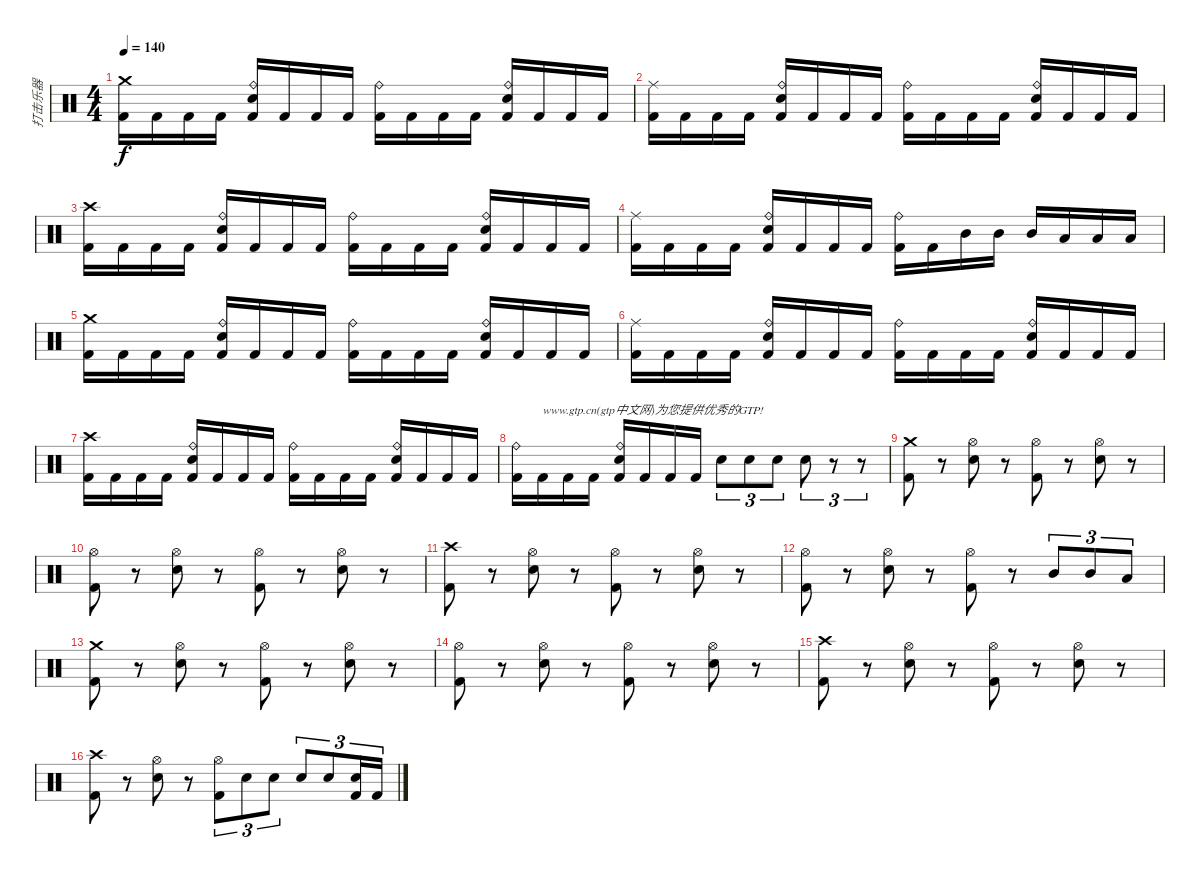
\track ("打击乐器" "打击乐器") {instrument percussion}
\staff {score}
\articulation defaults
\ts (4 4)
\tempo 140
\clef neutral
\ks c
("Crash medium (hit)" "Kick (hit) 2").16{dy f} "Kick (hit) 2".16 "Kick (hit) 2".16 "Kick (hit) 2".16 ("Ride (bell)" "Snare (hit) 2" "Kick (hit) 2").16 "Kick (hit) 2".16 "Kick (hit) 2".16 "Kick (hit) 2".16 ("Ride (bell)" "Kick (hit) 2").16 "Kick (hit) 2".16 "Kick (hit) 2".16 "Kick (hit) 2".16 ("Ride (bell)" "Snare (hit) 2" "Kick (hit) 2").16 "Kick (hit) 2".16 "Kick (hit) 2".16 "Kick (hit) 2".16 |
("Ride (middle)" "Kick (hit) 2").16 "Kick (hit) 2".16 "Kick (hit) 2".16 "Kick (hit) 2".16 ("Ride (bell)" "Snare (hit) 2" "Kick (hit) 2").16 "Kick (hit) 2".16 "Kick (hit) 2".16 "Kick (hit) 2".16 ("Ride (bell)" "Kick (hit) 2").16 "Kick (hit) 2".16 "Kick (hit) 2".16 "Kick (hit) 2".16 ("Ride (bell)" "Snare (hit) 2" "Kick (hit) 2").16 "Kick (hit) 2".16 "Kick (hit) 2".16 "Kick (hit) 2".16 |
("Crash high (hit)" "Kick (hit) 2").16 "Kick (hit) 2".16 "Kick (hit) 2".16 "Kick (hit) 2".16 ("Ride (bell)" "Snare (hit) 2" "Kick (hit) 2").16 "Kick (hit) 2".16 "Kick (hit) 2".16 "Kick (hit) 2".16 ("Ride (bell)" "Kick (hit) 2").16 "Kick (hit) 2".16 "Kick (hit) 2".16 "Kick (hit) 2".16 ("Ride (bell)" "Snare (hit) 2" "Kick (hit) 2").16 "Kick (hit) 2".16 "Kick (hit) 2".16 "Kick (hit) 2".16 |
("Ride (middle)" "Kick (hit) 2").16 "Kick (hit) 2".16 "Kick (hit) 2".16 "Kick (hit) 2".16 ("Ride (bell)" "Snare (hit) 2" "Kick (hit) 2").16 "Kick (hit) 2".16 "Kick (hit) 2".16 "Kick (hit) 2".16 ("Ride (bell)" "Kick (hit) 2").16 "Kick (hit) 2".16 "Mid Tom (hit)".16 "Mid Tom (hit)".16 "Mid Tom (hit)".16 "Low Tom (hit)".16 "Low Tom (hit)".16 "Low Tom (hit)".16 |
("Crash medium (hit)" "Kick (hit) 2").16 "Kick (hit) 2".16 "Kick (hit) 2".16 "Kick (hit) 2".16 ("Ride (bell)" "Snare (hit) 2" "Kick (hit) 2").16 "Kick (hit) 2".16 "Kick (hit) 2".16 "Kick (hit) 2".16 ("Ride (bell)" "Kick (hit) 2").16 "Kick (hit) 2".16 "Kick (hit) 2".16 "Kick (hit) 2".16 ("Ride (bell)" "Snare (hit) 2" "Kick (hit) 2").16 "Kick (hit) 2".16 "Kick (hit) 2".16 "Kick (hit) 2".16 |
("Ride (middle)" "Kick (hit) 2").16 "Kick (hit) 2".16 "Kick (hit) 2".16 "Kick (hit) 2".16 ("Ride (bell)" "Snare (hit) 2" "Kick (hit) 2").16 "Kick (hit) 2".16 "Kick (hit) 2".16 "Kick (hit) 2".16 ("Ride (bell)" "Kick (hit) 2").16 "Kick (hit) 2".16 "Kick (hit) 2".16 "Kick (hit) 2".16 ("Ride (bell)" "Snare (hit) 2" "Kick (hit) 2").16 "Kick (hit) 2".16 "Kick (hit) 2".16 "Kick (hit) 2".16 |
("Crash high (hit)" "Kick (hit) 2").16 "Kick (hit) 2".16 "Kick (hit) 2".16 "Kick (hit) 2".16 ("Ride (bell)" "Snare (hit) 2" "Kick (hit) 2").16 "Kick (hit) 2".16 "Kick (hit) 2".16 "Kick (hit) 2".16 ("Ride (bell)" "Kick (hit) 2").16 "Kick (hit) 2".16 "Kick (hit) 2".16 "Kick (hit) 2".16 ("Ride (bell)" "Snare (hit) 2" "Kick (hit) 2").16 "Kick (hit) 2".16 "Kick (hit) 2".16 "Kick (hit) 2".16 |
("Ride (bell)" "Kick (hit) 2").16 "Kick (hit) 2".16{txt "www.gtp.cn(gtp中文网)为您提供优秀的GTP!"} "Kick (hit) 2".16 "Kick (hit) 2".16 ("Ride (bell)" "Snare (hit) 2" "Kick (hit) 2").16 "Kick (hit) 2".16 "Kick (hit) 2".16 "Kick (hit) 2".16 "Snare (hit) 2".8{tu (3 2)} "Snare (hit) 2".8{tu (3 2)} "Snare (hit) 2".8{tu (3 2)} "Snare (hit) 2".8{tu (3 2)} r.8{tu (3 2)} r.8{tu (3 2)} |
("Crash medium (hit)" "Kick (hit) 2").8 r.8 ("Hi-Hat (open)" "Snare (hit) 2").8 r.8 ("Hi-Hat (open)" "Kick (hit) 2").8 r.8 ("Hi-Hat (open)" "Snare (hit) 2").8 r.8 |
("Hi-Hat (open)" "Kick (hit) 2").8 r.8 ("Hi-Hat (open)" "Snare (hit) 2").8 r.8 ("Hi-Hat (open)" "Kick (hit) 2").8 r.8 ("Hi-Hat (open)" "Snare (hit) 2").8 r.8 |
("Crash high (hit)" "Kick (hit) 2").8 r.8 ("Hi-Hat (open)" "Snare (hit) 2").8 r.8 ("Hi-Hat (open)" "Kick (hit) 2").8 r.8 ("Hi-Hat (open)" "Snare (hit) 2").8 r.8 |
("Hi-Hat (open)" "Kick (hit) 2").8 r.8 ("Hi-Hat (open)" "Snare (hit) 2").8 r.8 ("Hi-Hat (open)" "Kick (hit) 2").8 r.8 "Mid Tom (hit)".8{tu (3 2)} "Mid Tom (hit)".8{tu (3 2)} "Low Tom (hit)".8{tu (3 2)} |
("Crash medium (hit)" "Kick (hit) 2").8 r.8 ("Hi-Hat (open)" "Snare (hit) 2").8 r.8 ("Hi-Hat (open)" "Kick (hit) 2").8 r.8 ("Hi-Hat (open)" "Snare (hit) 2").8 r.8 |
("Hi-Hat (open)" "Kick (hit) 2").8 r.8 ("Hi-Hat (open)" "Snare (hit) 2").8 r.8 ("Hi-Hat (open)" "Kick (hit) 2").8 r.8 ("Hi-Hat (open)" "Snare (hit) 2").8 r.8 |
("Crash high (hit)" "Kick (hit) 2").8 r.8 ("Hi-Hat (open)" "Snare (hit) 2").8 r.8 ("Hi-Hat (open)" "Kick (hit) 2").8 r.8 ("Hi-Hat (open)" "Snare (hit) 2").8 r.8 |
("Crash high (hit)" "Kick (hit) 2").8 r.8 ("Hi-Hat (open)" "Snare (hit) 2").8 r.8 ("Hi-Hat (open)" "Kick (hit) 2").8{tu (3 2)} "Snare (hit) 2".8{tu (3 2)} "Snare (hit) 2".8{tu (3 2)} "Snare (hit) 2".8{tu (3 2)} "Snare (hit) 2".8{tu (3 2)} ("Snare (hit) 2" "Kick (hit) 2").16{tu (3 2)} "Kick (hit) 2".16{tu (3 2)}
